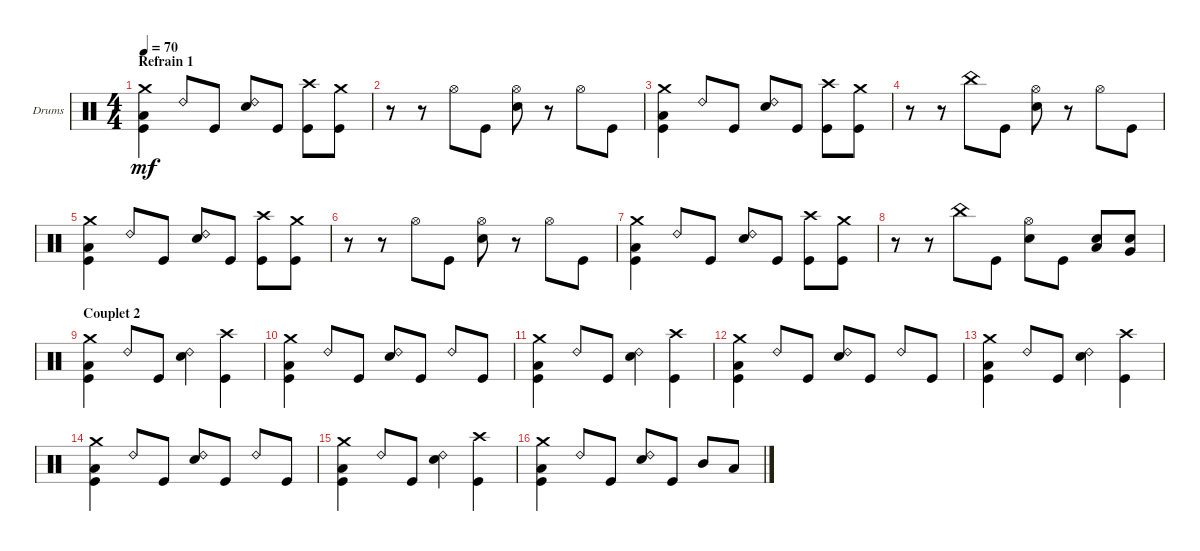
\bracketExtendMode groupsimilarinstruments
\firstSystemTrackNameOrientation horizontal
\otherSystemsTrackNameOrientation horizontal
\track ("Drumkit" "Drums") {instrument percussion}
\staff {score}
\articulation defaults
\ts (4 4)
\section ("" "Refrain 1")
\scale
0.25
\tempo 70
\accidentals auto
\clef neutral
\ottava regular
\simile none
\scale
0.25
\ks c
("Crash medium (hit)" "Kick (hit)" "Low Tom (hit)").4{dy mf} "Ride (bell) 2".8 "Kick (hit)".8 ("Snare (hit) 2" "Ride (bell) 2").8 "Kick (hit)".8 ("Kick (hit)" "Crash high (hit)").8 ("Kick (hit)" "Crash medium (hit)").8 |
\scale
0.25
\scale
0.25 r.8 r.8 "Hi-Hat (open)".8 "Kick (hit)".8 ("Hi-Hat (open)" "Snare (hit) 2").8 r.8 "Hi-Hat (open)".8 "Kick (hit)".8 |
\scale
0.25
\scale
0.25 ("Crash medium (hit)" "Kick (hit)" "Low Tom (hit)").4 "Ride (bell) 2".8 "Kick (hit)".8 ("Snare (hit) 2" "Ride (bell) 2").8 "Kick (hit)".8 ("Kick (hit)" "Crash high (hit)").8 ("Kick (hit)" "Crash medium (hit)").8 |
\scale
0.25
\scale
0.25 r.8 r.8 "China (hit)".8 "Kick (hit)".8 ("Hi-Hat (open)" "Snare (hit) 2").8 r.8 "Hi-Hat (open)".8 "Kick (hit)".8 |
\scale
0.25
\scale
0.25 ("Crash medium (hit)" "Kick (hit)" "Low Tom (hit)").4 "Ride (bell) 2".8 "Kick (hit)".8 ("Snare (hit) 2" "Ride (bell) 2").8 "Kick (hit)".8 ("Kick (hit)" "Crash high (hit)").8 ("Kick (hit)" "Crash medium (hit)").8 |
\scale
0.25
\scale
0.25 r.8 r.8 "Hi-Hat (open)".8 "Kick (hit)".8 ("Hi-Hat (open)" "Snare (hit) 2").8 r.8 "Hi-Hat (open)".8 "Kick (hit)".8 |
\scale
0.25
\scale
0.25 ("Crash medium (hit)" "Kick (hit)" "Low Tom (hit)").4 "Ride (bell) 2".8 "Kick (hit)".8 ("Snare (hit) 2" "Ride (bell) 2").8 "Kick (hit)".8 ("Kick (hit)" "Crash high (hit)").8 ("Kick (hit)" "Crash medium (hit)").8 |
\scale
0.25
\scale
0.25 r.8 r.8 "China (hit)".8 "Kick (hit)".8 ("Hi-Hat (open)" "Snare (hit) 2").8 "Kick (hit)".8 ("Snare (hit) 2" "Low Tom (hit)").8 ("Very Low Tom (hit)" "Snare (hit) 2").8 |
\section ("" "Couplet 2")
\scale
0.338798
\scale
0.25 ("Crash medium (hit)" "Kick (hit)" "Low Tom (hit)").4 "Ride (bell) 2".8 "Kick (hit)".8 ("Snare (hit) 2" "Ride (bell) 2").4 ("Crash high (hit)" "Kick (hit)").4 |
\scale
0.161202
\scale
0.25 ("Crash medium (hit)" "Kick (hit)" "Low Tom (hit)").4 "Ride (bell) 2".8 "Kick (hit)".8 ("Snare (hit) 2" "Ride (bell) 2").8 "Kick (hit)".8 "Ride (bell) 2".8 "Kick (hit)".8 |
\scale
0.338798
\scale
0.25 ("Crash medium (hit)" "Kick (hit)" "Low Tom (hit)").4 "Ride (bell) 2".8 "Kick (hit)".8 ("Snare (hit) 2" "Ride (bell) 2").4 ("Crash high (hit)" "Kick (hit)").4 |
\scale
0.161202
\scale
0.25 ("Crash medium (hit)" "Kick (hit)" "Low Tom (hit)").4 "Ride (bell) 2".8 "Kick (hit)".8 ("Snare (hit) 2" "Ride (bell) 2").8 "Kick (hit)".8 "Ride (bell) 2".8 "Kick (hit)".8 |
\scale
0.338798
\scale
0.25 ("Crash medium (hit)" "Kick (hit)" "Low Tom (hit)").4 "Ride (bell) 2".8 "Kick (hit)".8 ("Snare (hit) 2" "Ride (bell) 2").4 ("Crash high (hit)" "Kick (hit)").4 |
\scale
0.161202
\scale
0.25 ("Crash medium (hit)" "Kick (hit)" "Low Tom (hit)").4 "Ride (bell) 2".8 "Kick (hit)".8 ("Snare (hit) 2" "Ride (bell) 2").8 "Kick (hit)".8 "Ride (bell) 2".8 "Kick (hit)".8 |
\scale
0.338798
\scale
0.25 ("Crash medium (hit)" "Kick (hit)" "Low Tom (hit)").4 "Ride (bell) 2".8 "Kick (hit)".8 ("Snare (hit) 2" "Ride (bell) 2").4 ("Crash high (hit)" "Kick (hit)").4 |
\scale
0.161202
\scale
0.25 ("Crash medium (hit)" "Kick (hit)" "Low Tom (hit)").4 "Ride (bell) 2".8 "Kick (hit)".8 ("Ride (bell) 2" "Snare (hit) 2").8 "Kick (hit)".8 "Mid Tom (hit)".8 "Low Tom (hit)".8
